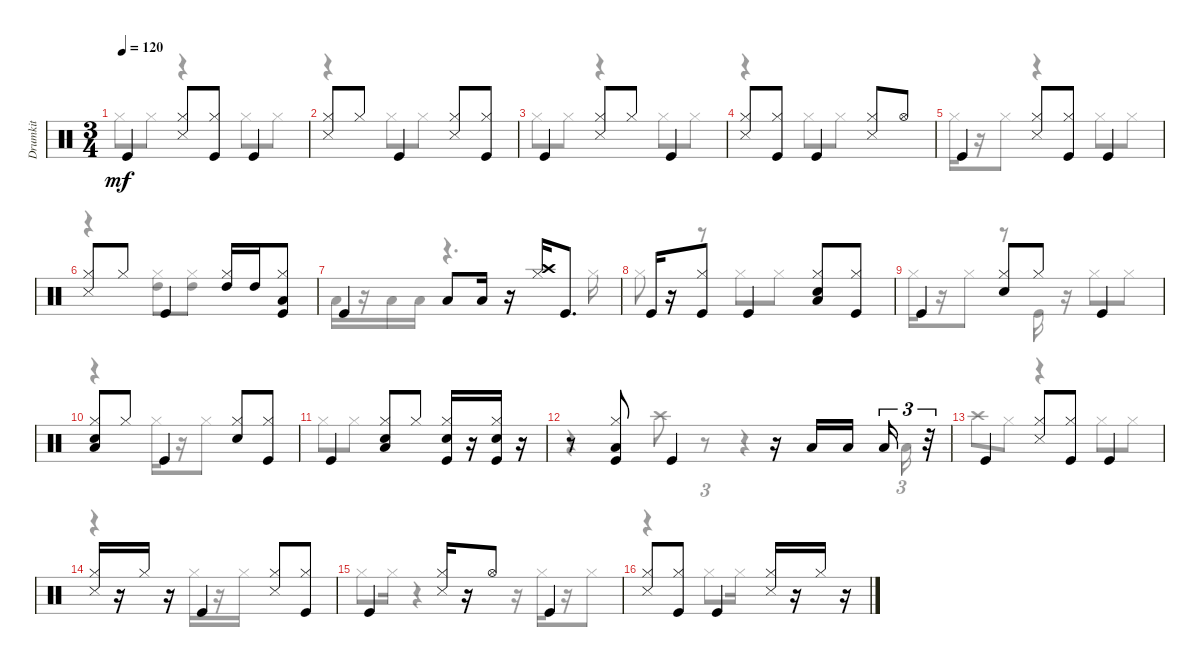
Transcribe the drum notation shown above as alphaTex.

\track ("Drumkit" "Drumkit") {instrument percussion}
\staff {score}
\articulation defaults
\voice
\ts (3 4)
\tempo 120
\clef neutral
\ks aminor "Kick (hit)".4{dy mf}
("Snare (side stick) 3" "Hi-Hat (closed)").8 ("Kick (hit)" "Hi-Hat (closed)").8 "Kick (hit)".4 |
("Snare (side stick) 3" "Hi-Hat (closed)").8 "Hi-Hat (closed)".8 "Kick (hit)".4 ("Snare (side stick) 3" "Hi-Hat (closed)").8 ("Hi-Hat (closed)" "Kick (hit)").8 |
"Kick (hit)".4 ("Snare (side stick) 3" "Hi-Hat (closed)").8 "Hi-Hat (closed)".8 "Kick (hit)".4 |
("Hi-Hat (closed)" "Snare (side stick) 3").8 ("Kick (hit)" "Hi-Hat (closed)").8 "Kick (hit)".4 ("Snare (side stick) 3" "Hi-Hat (closed)").8 "Hi-Hat (open)".8 |
"Kick (hit)".4 ("Hi-Hat (closed)" "Snare (side stick) 3").8 ("Kick (hit)" "Hi-Hat (closed)").8 "Kick (hit)".4 |
("Snare (side stick) 3" "Hi-Hat (closed)").8 "Hi-Hat (closed)".8 "Kick (hit)".4 ("Hi-Hat (closed)" "High Tom (hit)").16 "High Tom (hit)".16 ("Hi-Hat (closed)" "Kick (hit)" "Low Tom (hit)").8 |
"Kick (hit)".4 "Low Floor Tom (hit)".8 "Low Floor Tom (hit)".16 r.16 ("Crash high (hit)" "Hi-Hat (closed)").16 "Kick (hit)".8{d} |
"Kick (hit)".16 r.16 ("Kick (hit)" "Hi-Hat (closed)").8 "Kick (hit)".4 ("Hi-Hat (closed)" "Low Floor Tom (hit)" "Snare (hit) 2").8 ("Kick (hit)" "Hi-Hat (closed)").8 |
"Kick (hit)".4 ("Snare (hit) 2" "Hi-Hat (closed)").8 "Hi-Hat (closed)".8 "Kick (hit)".4 |
("Snare (hit) 2" "Hi-Hat (closed)" "Low Floor Tom (hit)").8 "Hi-Hat (closed)".8 "Kick (hit)".4 ("Snare (hit) 2" "Hi-Hat (closed)").8 ("Kick (hit)" "Hi-Hat (closed)").8 |
"Kick (hit)".4 ("Low Floor Tom (hit)" "Hi-Hat (closed)" "Snare (hit) 2").8 "Hi-Hat (closed)".8 ("Snare (hit) 2" "Hi-Hat (closed)" "Kick (hit)").16 r.16 ("Hi-Hat (closed)" "Kick (hit)" "Snare (hit) 2").16 r.16 |
r.8 ("Low Floor Tom (hit)" "Hi-Hat (closed)" "Kick (hit)").8 "Kick (hit)".4 r.16 "Low Floor Tom (hit)".16 "Low Floor Tom (hit)".16 "Low Floor Tom (hit)".16{tu (3 2)} r.32{tu (3 2)} |
"Kick (hit)".4 ("Hi-Hat (closed)" "Snare (side stick) 3").8 ("Kick (hit)" "Hi-Hat (closed)").8 "Kick (hit)".4 |
("Hi-Hat (closed)" "Snare (side stick) 3").16 r.16 "Hi-Hat (closed)".16 r.16 "Kick (hit)".4 ("Hi-Hat (closed)" "Snare (side stick) 3").8 ("Kick (hit)" "Hi-Hat (closed)").8 |
"Kick (hit)".4 ("Hi-Hat (closed)" "Snare (side stick) 3").16 r.16 "Hi-Hat (open)".8 "Kick (hit)".4 |
("Hi-Hat (closed)" "Snare (side stick) 3").8 ("Kick (hit)" "Hi-Hat (closed)").8 "Kick (hit)".4 ("Hi-Hat (closed)" "Snare (side stick) 3").16 r.16 "Hi-Hat (closed)".16 r.16
\voice
\clef neutral
\ottava regular
\simile none
\ks aminor "Hi-Hat (closed)".8{dy mf} "Hi-Hat (closed)".8
r.4 "Hi-Hat (closed)".8 "Hi-Hat (closed)".8 |
r.4 "Hi-Hat (closed)".8 "Hi-Hat (closed)".8 |
"Hi-Hat (closed)".8 "Hi-Hat (closed)".8 r.4 "Hi-Hat (closed)".8 "Hi-Hat (closed)".8 |
r.4 "Hi-Hat (closed)".8 "Hi-Hat (closed)".8 |
"Hi-Hat (closed)".16 r.16 "Hi-Hat (closed)".8 r.4 "Hi-Hat (closed)".8 "Hi-Hat (closed)".8 |
r.4 ("High Tom (hit)" "Hi-Hat (closed)").8 ("Hi-Hat (closed)" "High Tom (hit)").8 |
"Low Tom (hit)".16 r.16 "Low Tom (hit)".16 "Low Tom (hit)".16 r.4{d} "Hi-Hat (closed)".16 |
"Hi-Hat (closed)".8 r.8 "Hi-Hat (closed)".8 "Hi-Hat (closed)".8 |
"Hi-Hat (closed)".16 r.16 "Hi-Hat (closed)".8 r.8 "Kick (hit)".16 r.16 "Hi-Hat (closed)".8 "Hi-Hat (closed)".8 |
r.4 "Hi-Hat (closed)".16 r.16 "Hi-Hat (closed)".8 |
"Hi-Hat (closed)".8 "Hi-Hat (closed)".8 |
r.4 "Crash high (hit)".8 r.8{tu (3 2)} r.4 "Low Floor Tom (hit)".16{tu (3 2)} |
"Crash high (hit)".8 "Hi-Hat (closed)".8 r.4 "Hi-Hat (closed)".8 "Hi-Hat (closed)".8 |
r.4 "Hi-Hat (closed)".16 r.16 "Hi-Hat (closed)".16 |
"Hi-Hat (closed)".8 "Hi-Hat (closed)".16 r.4 r.16 "Hi-Hat (closed)".16 r.16 "Hi-Hat (closed)".8 |
r.4 "Hi-Hat (closed)".8 "Hi-Hat (closed)".16
